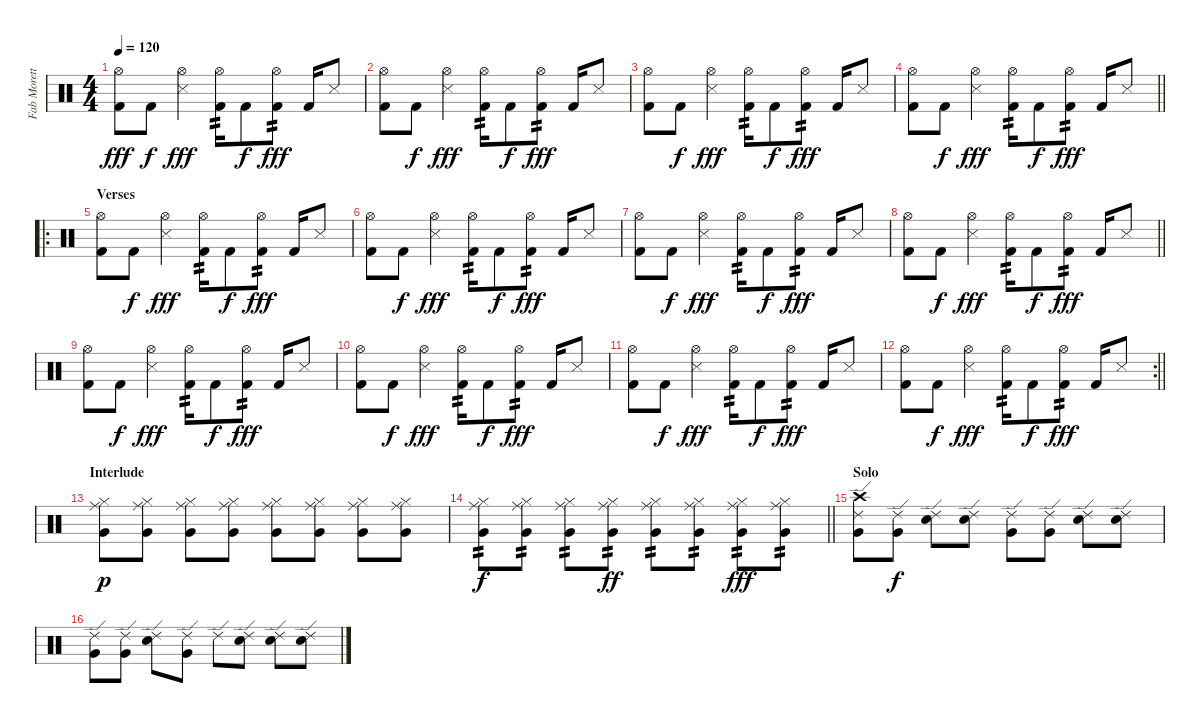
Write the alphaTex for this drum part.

\track ("Fab Moretti - Drums" "Fab Morett") {instrument percussion}
\staff {score}
\articulation defaults
\ts (4 4)
\tempo 120
\clef neutral
\ks c
("Kick (hit) 2" "Hi-Hat (open)").8{dy fff} "Kick (hit) 2".8{dy f} ("Snare (side stick) 3" "Hi-Hat (open)").4{dy fff} ("Kick (hit) 2" "Hi-Hat (open)").16{tp 2} "Kick (hit) 2".8{dy f} ("Kick (hit) 2" "Hi-Hat (open)").8{tp 2 dy fff} "Kick (hit) 2".16 "Snare (side stick) 3".8 |
("Kick (hit) 2" "Hi-Hat (open)").8 "Kick (hit) 2".8{dy f} ("Snare (side stick) 3" "Hi-Hat (open)").4{dy fff} ("Kick (hit) 2" "Hi-Hat (open)").16{tp 2} "Kick (hit) 2".8{dy f} ("Kick (hit) 2" "Hi-Hat (open)").8{tp 2 dy fff} "Kick (hit) 2".16 "Snare (side stick) 3".8 |
("Kick (hit) 2" "Hi-Hat (open)").8 "Kick (hit) 2".8{dy f} ("Snare (side stick) 3" "Hi-Hat (open)").4{dy fff} ("Kick (hit) 2" "Hi-Hat (open)").16{tp 2} "Kick (hit) 2".8{dy f} ("Kick (hit) 2" "Hi-Hat (open)").8{tp 2 dy fff} "Kick (hit) 2".16 "Snare (side stick) 3".8 |
\barLineRight lightlight
("Kick (hit) 2" "Hi-Hat (open)").8 "Kick (hit) 2".8{dy f} ("Snare (side stick) 3" "Hi-Hat (open)").4{dy fff} ("Kick (hit) 2" "Hi-Hat (open)").16{tp 2} "Kick (hit) 2".8{dy f} ("Kick (hit) 2" "Hi-Hat (open)").8{tp 2 dy fff} "Kick (hit) 2".16 "Snare (side stick) 3".8 |
\ro
\section ("" "Verses")
("Kick (hit) 2" "Hi-Hat (open)").8 "Kick (hit) 2".8{dy f} ("Snare (side stick) 3" "Hi-Hat (open)").4{dy fff} ("Kick (hit) 2" "Hi-Hat (open)").16{tp 2} "Kick (hit) 2".8{dy f} ("Kick (hit) 2" "Hi-Hat (open)").8{tp 2 dy fff} "Kick (hit) 2".16 "Snare (side stick) 3".8 |
("Kick (hit) 2" "Hi-Hat (open)").8 "Kick (hit) 2".8{dy f} ("Snare (side stick) 3" "Hi-Hat (open)").4{dy fff} ("Kick (hit) 2" "Hi-Hat (open)").16{tp 2} "Kick (hit) 2".8{dy f} ("Kick (hit) 2" "Hi-Hat (open)").8{tp 2 dy fff} "Kick (hit) 2".16 "Snare (side stick) 3".8 |
("Kick (hit) 2" "Hi-Hat (open)").8 "Kick (hit) 2".8{dy f} ("Snare (side stick) 3" "Hi-Hat (open)").4{dy fff} ("Kick (hit) 2" "Hi-Hat (open)").16{tp 2} "Kick (hit) 2".8{dy f} ("Kick (hit) 2" "Hi-Hat (open)").8{tp 2 dy fff} "Kick (hit) 2".16 "Snare (side stick) 3".8 |
\barLineRight lightlight
("Kick (hit) 2" "Hi-Hat (open)").8 "Kick (hit) 2".8{dy f} ("Snare (side stick) 3" "Hi-Hat (open)").4{dy fff} ("Kick (hit) 2" "Hi-Hat (open)").16{tp 2} "Kick (hit) 2".8{dy f} ("Kick (hit) 2" "Hi-Hat (open)").8{tp 2 dy fff} "Kick (hit) 2".16 "Snare (side stick) 3".8 |
("Kick (hit) 2" "Hi-Hat (open)").8 "Kick (hit) 2".8{dy f} ("Snare (side stick) 3" "Hi-Hat (open)").4{dy fff} ("Kick (hit) 2" "Hi-Hat (open)").16{tp 2} "Kick (hit) 2".8{dy f} ("Kick (hit) 2" "Hi-Hat (open)").8{tp 2 dy fff} "Kick (hit) 2".16 "Snare (side stick) 3".8 |
("Kick (hit) 2" "Hi-Hat (open)").8 "Kick (hit) 2".8{dy f} ("Snare (side stick) 3" "Hi-Hat (open)").4{dy fff} ("Kick (hit) 2" "Hi-Hat (open)").16{tp 2} "Kick (hit) 2".8{dy f} ("Kick (hit) 2" "Hi-Hat (open)").8{tp 2 dy fff} "Kick (hit) 2".16 "Snare (side stick) 3".8 |
("Kick (hit) 2" "Hi-Hat (open)").8 "Kick (hit) 2".8{dy f} ("Snare (side stick) 3" "Hi-Hat (open)").4{dy fff} ("Kick (hit) 2" "Hi-Hat (open)").16{tp 2} "Kick (hit) 2".8{dy f} ("Kick (hit) 2" "Hi-Hat (open)").8{tp 2 dy fff} "Kick (hit) 2".16 "Snare (side stick) 3".8 |
\rc 2
\barLineRight lightlight
("Kick (hit) 2" "Hi-Hat (open)").8 "Kick (hit) 2".8{dy f} ("Snare (side stick) 3" "Hi-Hat (open)").4{dy fff} ("Kick (hit) 2" "Hi-Hat (open)").16{tp 2} "Kick (hit) 2".8{dy f} ("Kick (hit) 2" "Hi-Hat (open)").8{tp 2 dy fff} "Kick (hit) 2".16 "Snare (side stick) 3".8 |
\section ("" "Interlude")
("Very Low Tom (hit)" "Ride (middle)" "Hi-Hat (closed)").8{dy p} ("Very Low Tom (hit)" "Ride (middle)" "Hi-Hat (closed)").8 ("Very Low Tom (hit)" "Ride (middle)" "Hi-Hat (closed)").8 ("Very Low Tom (hit)" "Ride (middle)" "Hi-Hat (closed)").8 ("Very Low Tom (hit)" "Ride (middle)" "Hi-Hat (closed)").8 ("Very Low Tom (hit)" "Ride (middle)" "Hi-Hat (closed)").8 ("Very Low Tom (hit)" "Ride (middle)" "Hi-Hat (closed)").8 ("Very Low Tom (hit)" "Ride (middle)" "Hi-Hat (closed)").8 |
\barLineRight lightlight
("Very Low Tom (hit)" "Ride (middle)" "Hi-Hat (closed)").8{tp 2 dy f} ("Very Low Tom (hit)" "Ride (middle)" "Hi-Hat (closed)").8{tp 2} ("Very Low Tom (hit)" "Ride (middle)" "Hi-Hat (closed)").8{tp 2} ("Very Low Tom (hit)" "Ride (middle)" "Hi-Hat (closed)").8{tp 2 dy ff} ("Very Low Tom (hit)" "Ride (middle)" "Hi-Hat (closed)").8{tp 2} ("Very Low Tom (hit)" "Ride (middle)" "Hi-Hat (closed)").8{tp 2} ("Very Low Tom (hit)" "Ride (middle)" "Hi-Hat (closed)").8{tp 2 dy fff} ("Very Low Tom (hit)" "Ride (middle)" "Hi-Hat (closed)").8{tp 2} |
\section ("" "Solo")
("Ride (edge) 2" "Very Low Tom (hit)" "Crash high (hit)").8 ("Ride (edge) 2" "Very Low Tom (hit)").8{dy f} ("Ride (edge) 2" "Electric Snare (hit)").8 ("Ride (edge) 2" "Electric Snare (hit)").8 ("Ride (edge) 2" "Very Low Tom (hit)").8 ("Ride (edge) 2" "Very Low Tom (hit)").8 ("Ride (edge) 2" "Electric Snare (hit)").8 ("Ride (edge) 2" "Electric Snare (hit)").8 |
("Ride (edge) 2" "Very Low Tom (hit)").8 ("Ride (edge) 2" "Very Low Tom (hit)").8 ("Ride (edge) 2" "Electric Snare (hit)").8 ("Ride (edge) 2" "Very Low Tom (hit)").8 "Ride (edge) 2".8 ("Ride (edge) 2" "Electric Snare (hit)").8 ("Ride (edge) 2" "Electric Snare (hit)").8 ("Ride (edge) 2" "Electric Snare (hit)").8
